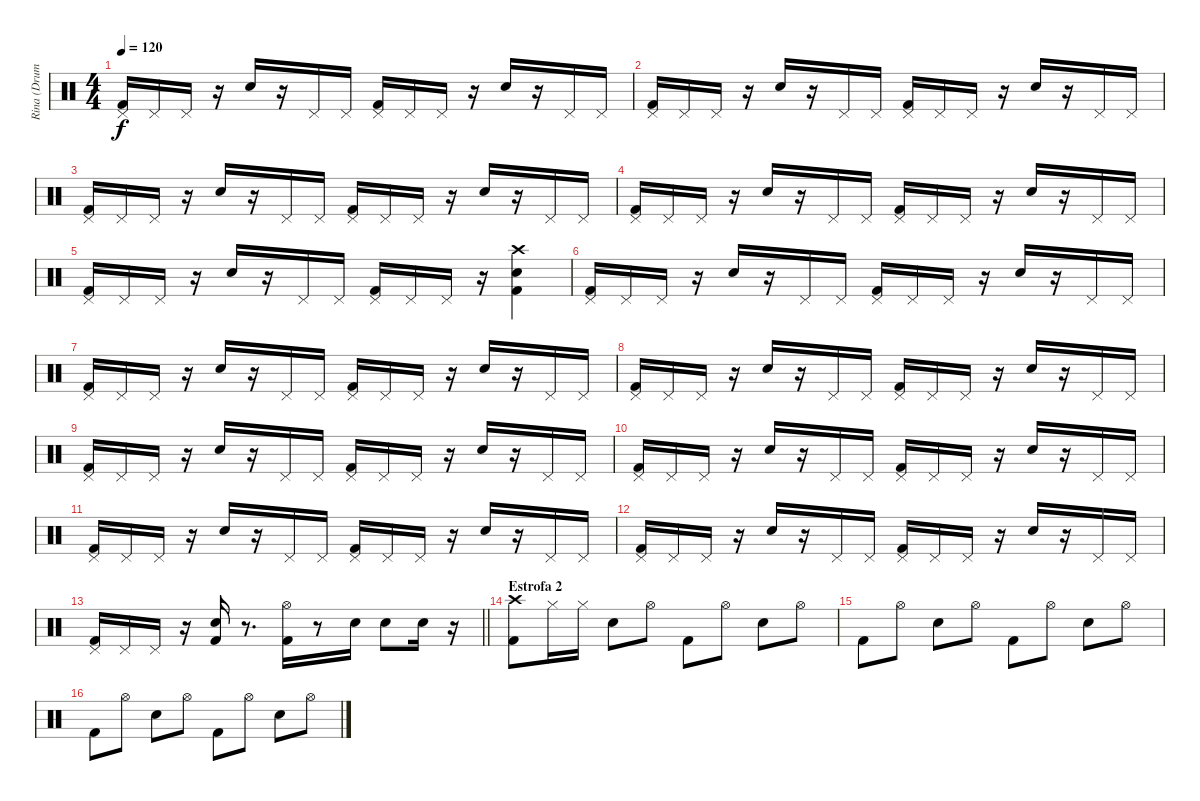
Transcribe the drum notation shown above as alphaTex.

\track ("Rina (Drums)" "Rina (Drum") {instrument percussion}
\staff {score}
\articulation defaults
\ts (4 4)
\tempo 120
\clef neutral
\ks c
("Pedal Hi-Hat (hit)" "Kick (hit) 2").16{dy f} "Pedal Hi-Hat (hit)".16 "Pedal Hi-Hat (hit)".16 r.16 "Snare (hit) 2".16 r.16 "Pedal Hi-Hat (hit)".16 "Pedal Hi-Hat (hit)".16 ("Pedal Hi-Hat (hit)" "Kick (hit) 2").16 "Pedal Hi-Hat (hit)".16 "Pedal Hi-Hat (hit)".16 r.16 "Snare (hit) 2".16 r.16 "Pedal Hi-Hat (hit)".16 "Pedal Hi-Hat (hit)".16 |
("Pedal Hi-Hat (hit)" "Kick (hit) 2").16 "Pedal Hi-Hat (hit)".16 "Pedal Hi-Hat (hit)".16 r.16 "Snare (hit) 2".16 r.16 "Pedal Hi-Hat (hit)".16 "Pedal Hi-Hat (hit)".16 ("Pedal Hi-Hat (hit)" "Kick (hit) 2").16 "Pedal Hi-Hat (hit)".16 "Pedal Hi-Hat (hit)".16 r.16 "Snare (hit) 2".16 r.16 "Pedal Hi-Hat (hit)".16 "Pedal Hi-Hat (hit)".16 |
("Pedal Hi-Hat (hit)" "Kick (hit) 2").16 "Pedal Hi-Hat (hit)".16 "Pedal Hi-Hat (hit)".16 r.16 "Snare (hit) 2".16 r.16 "Pedal Hi-Hat (hit)".16 "Pedal Hi-Hat (hit)".16 ("Pedal Hi-Hat (hit)" "Kick (hit) 2").16 "Pedal Hi-Hat (hit)".16 "Pedal Hi-Hat (hit)".16 r.16 "Snare (hit) 2".16 r.16 "Pedal Hi-Hat (hit)".16 "Pedal Hi-Hat (hit)".16 |
("Pedal Hi-Hat (hit)" "Kick (hit) 2").16 "Pedal Hi-Hat (hit)".16 "Pedal Hi-Hat (hit)".16 r.16 "Snare (hit) 2".16 r.16 "Pedal Hi-Hat (hit)".16 "Pedal Hi-Hat (hit)".16 ("Pedal Hi-Hat (hit)" "Kick (hit) 2").16 "Pedal Hi-Hat (hit)".16 "Pedal Hi-Hat (hit)".16 r.16 "Snare (hit) 2".16 r.16 "Pedal Hi-Hat (hit)".16 "Pedal Hi-Hat (hit)".16 |
("Pedal Hi-Hat (hit)" "Kick (hit) 2").16 "Pedal Hi-Hat (hit)".16 "Pedal Hi-Hat (hit)".16 r.16 "Snare (hit) 2".16 r.16 "Pedal Hi-Hat (hit)".16 "Pedal Hi-Hat (hit)".16 ("Pedal Hi-Hat (hit)" "Kick (hit) 2").16 "Pedal Hi-Hat (hit)".16 "Pedal Hi-Hat (hit)".16 r.16 ("Crash high (hit)" "Snare (hit) 2" "Kick (hit) 2").4 |
("Pedal Hi-Hat (hit)" "Kick (hit) 2").16 "Pedal Hi-Hat (hit)".16 "Pedal Hi-Hat (hit)".16 r.16 "Snare (hit) 2".16 r.16 "Pedal Hi-Hat (hit)".16 "Pedal Hi-Hat (hit)".16 ("Pedal Hi-Hat (hit)" "Kick (hit) 2").16 "Pedal Hi-Hat (hit)".16 "Pedal Hi-Hat (hit)".16 r.16 "Snare (hit) 2".16 r.16 "Pedal Hi-Hat (hit)".16 "Pedal Hi-Hat (hit)".16 |
("Pedal Hi-Hat (hit)" "Kick (hit) 2").16 "Pedal Hi-Hat (hit)".16 "Pedal Hi-Hat (hit)".16 r.16 "Snare (hit) 2".16 r.16 "Pedal Hi-Hat (hit)".16 "Pedal Hi-Hat (hit)".16 ("Pedal Hi-Hat (hit)" "Kick (hit) 2").16 "Pedal Hi-Hat (hit)".16 "Pedal Hi-Hat (hit)".16 r.16 "Snare (hit) 2".16 r.16 "Pedal Hi-Hat (hit)".16 "Pedal Hi-Hat (hit)".16 |
("Pedal Hi-Hat (hit)" "Kick (hit) 2").16 "Pedal Hi-Hat (hit)".16 "Pedal Hi-Hat (hit)".16 r.16 "Snare (hit) 2".16 r.16 "Pedal Hi-Hat (hit)".16 "Pedal Hi-Hat (hit)".16 ("Pedal Hi-Hat (hit)" "Kick (hit) 2").16 "Pedal Hi-Hat (hit)".16 "Pedal Hi-Hat (hit)".16 r.16 "Snare (hit) 2".16 r.16 "Pedal Hi-Hat (hit)".16 "Pedal Hi-Hat (hit)".16 |
("Pedal Hi-Hat (hit)" "Kick (hit) 2").16 "Pedal Hi-Hat (hit)".16 "Pedal Hi-Hat (hit)".16 r.16 "Snare (hit) 2".16 r.16 "Pedal Hi-Hat (hit)".16 "Pedal Hi-Hat (hit)".16 ("Pedal Hi-Hat (hit)" "Kick (hit) 2").16 "Pedal Hi-Hat (hit)".16 "Pedal Hi-Hat (hit)".16 r.16 "Snare (hit) 2".16 r.16 "Pedal Hi-Hat (hit)".16 "Pedal Hi-Hat (hit)".16 |
("Pedal Hi-Hat (hit)" "Kick (hit) 2").16 "Pedal Hi-Hat (hit)".16 "Pedal Hi-Hat (hit)".16 r.16 "Snare (hit) 2".16 r.16 "Pedal Hi-Hat (hit)".16 "Pedal Hi-Hat (hit)".16 ("Pedal Hi-Hat (hit)" "Kick (hit) 2").16 "Pedal Hi-Hat (hit)".16 "Pedal Hi-Hat (hit)".16 r.16 "Snare (hit) 2".16 r.16 "Pedal Hi-Hat (hit)".16 "Pedal Hi-Hat (hit)".16 |
("Pedal Hi-Hat (hit)" "Kick (hit) 2").16 "Pedal Hi-Hat (hit)".16 "Pedal Hi-Hat (hit)".16 r.16 "Snare (hit) 2".16 r.16 "Pedal Hi-Hat (hit)".16 "Pedal Hi-Hat (hit)".16 ("Pedal Hi-Hat (hit)" "Kick (hit) 2").16 "Pedal Hi-Hat (hit)".16 "Pedal Hi-Hat (hit)".16 r.16 "Snare (hit) 2".16 r.16 "Pedal Hi-Hat (hit)".16 "Pedal Hi-Hat (hit)".16 |
("Pedal Hi-Hat (hit)" "Kick (hit) 2").16 "Pedal Hi-Hat (hit)".16 "Pedal Hi-Hat (hit)".16 r.16 "Snare (hit) 2".16 r.16 "Pedal Hi-Hat (hit)".16 "Pedal Hi-Hat (hit)".16 ("Pedal Hi-Hat (hit)" "Kick (hit) 2").16 "Pedal Hi-Hat (hit)".16 "Pedal Hi-Hat (hit)".16 r.16 "Snare (hit) 2".16 r.16 "Pedal Hi-Hat (hit)".16 "Pedal Hi-Hat (hit)".16 |
\barLineRight lightlight
("Pedal Hi-Hat (hit)" "Kick (hit) 2").16 "Pedal Hi-Hat (hit)".16 "Pedal Hi-Hat (hit)".16 r.16 ("Snare (hit) 2" "Kick (hit) 2").16 r.8{d} ("Hi-Hat (open)" "Kick (hit) 2").16 r.8 "Snare (hit) 2".16 "Snare (hit) 2".8 "Snare (hit) 2".16 r.16 |
\section ("" "Estrofa 2")
("Crash high (hit)" "Kick (hit) 2").8 "Hi-Hat (closed)".16 "Hi-Hat (closed)".16 "Snare (hit) 2".8 "Hi-Hat (open)".8 "Kick (hit) 2".8 "Hi-Hat (open)".8 "Snare (hit) 2".8 "Hi-Hat (open)".8 |
"Kick (hit) 2".8 "Hi-Hat (open)".8 "Snare (hit) 2".8 "Hi-Hat (open)".8 "Kick (hit) 2".8 "Hi-Hat (open)".8 "Snare (hit) 2".8 "Hi-Hat (open)".8 |
"Kick (hit) 2".8 "Hi-Hat (open)".8 "Snare (hit) 2".8 "Hi-Hat (open)".8 "Kick (hit) 2".8 "Hi-Hat (open)".8 "Snare (hit) 2".8 "Hi-Hat (open)".8
